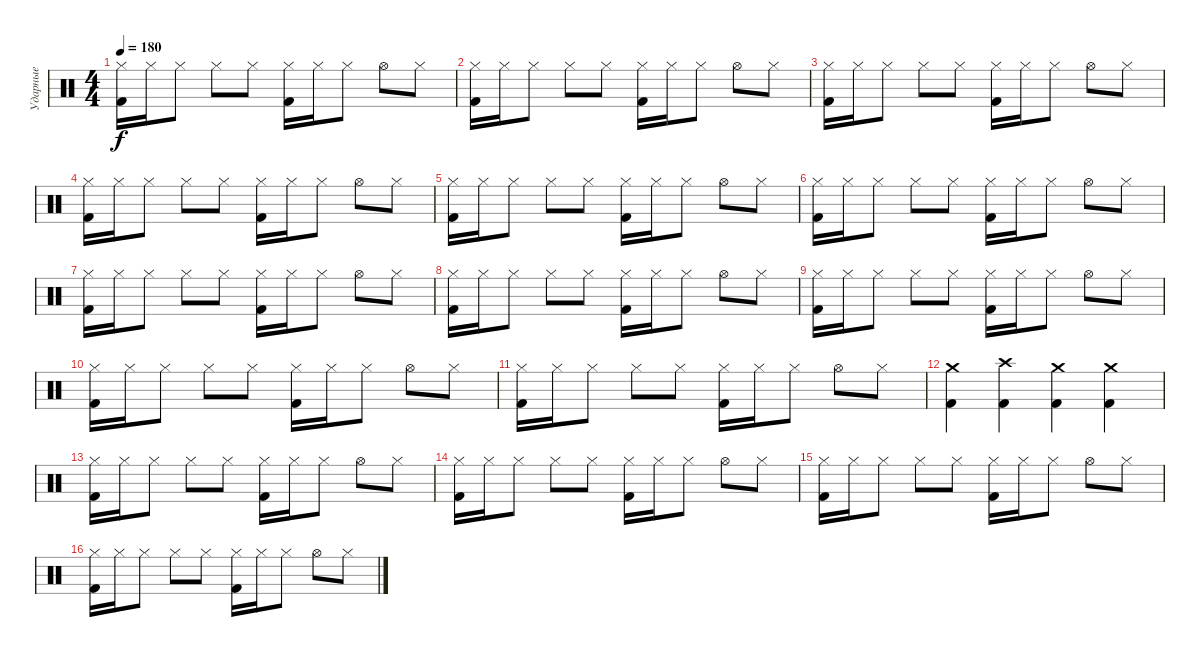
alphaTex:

\track ("Ударные" "Ударные") {instrument percussion}
\staff {score}
\articulation defaults
\ts (4 4)
\tempo 180
\clef neutral
\ks c
("Hi-Hat (closed)" "Kick (hit) 2").16{dy f} "Hi-Hat (closed)".16 "Hi-Hat (closed)".8 "Hi-Hat (closed)".8 "Hi-Hat (closed)".8 ("Hi-Hat (closed)" "Kick (hit) 2").16 "Hi-Hat (closed)".16 "Hi-Hat (closed)".8 "Hi-Hat (open)".8 "Hi-Hat (closed)".8 |
("Hi-Hat (closed)" "Kick (hit) 2").16 "Hi-Hat (closed)".16 "Hi-Hat (closed)".8 "Hi-Hat (closed)".8 "Hi-Hat (closed)".8 ("Hi-Hat (closed)" "Kick (hit) 2").16 "Hi-Hat (closed)".16 "Hi-Hat (closed)".8 "Hi-Hat (open)".8 "Hi-Hat (closed)".8 |
("Hi-Hat (closed)" "Kick (hit) 2").16 "Hi-Hat (closed)".16 "Hi-Hat (closed)".8 "Hi-Hat (closed)".8 "Hi-Hat (closed)".8 ("Hi-Hat (closed)" "Kick (hit) 2").16 "Hi-Hat (closed)".16 "Hi-Hat (closed)".8 "Hi-Hat (open)".8 "Hi-Hat (closed)".8 |
("Hi-Hat (closed)" "Kick (hit) 2").16 "Hi-Hat (closed)".16 "Hi-Hat (closed)".8 "Hi-Hat (closed)".8 "Hi-Hat (closed)".8 ("Hi-Hat (closed)" "Kick (hit) 2").16 "Hi-Hat (closed)".16 "Hi-Hat (closed)".8 "Hi-Hat (open)".8 "Hi-Hat (closed)".8 |
("Hi-Hat (closed)" "Kick (hit) 2").16 "Hi-Hat (closed)".16 "Hi-Hat (closed)".8 "Hi-Hat (closed)".8 "Hi-Hat (closed)".8 ("Hi-Hat (closed)" "Kick (hit) 2").16 "Hi-Hat (closed)".16 "Hi-Hat (closed)".8 "Hi-Hat (open)".8 "Hi-Hat (closed)".8 |
("Hi-Hat (closed)" "Kick (hit) 2").16 "Hi-Hat (closed)".16 "Hi-Hat (closed)".8 "Hi-Hat (closed)".8 "Hi-Hat (closed)".8 ("Hi-Hat (closed)" "Kick (hit) 2").16 "Hi-Hat (closed)".16 "Hi-Hat (closed)".8 "Hi-Hat (open)".8 "Hi-Hat (closed)".8 |
("Hi-Hat (closed)" "Kick (hit) 2").16 "Hi-Hat (closed)".16 "Hi-Hat (closed)".8 "Hi-Hat (closed)".8 "Hi-Hat (closed)".8 ("Hi-Hat (closed)" "Kick (hit) 2").16 "Hi-Hat (closed)".16 "Hi-Hat (closed)".8 "Hi-Hat (open)".8 "Hi-Hat (closed)".8 |
("Hi-Hat (closed)" "Kick (hit) 2").16 "Hi-Hat (closed)".16 "Hi-Hat (closed)".8 "Hi-Hat (closed)".8 "Hi-Hat (closed)".8 ("Hi-Hat (closed)" "Kick (hit) 2").16 "Hi-Hat (closed)".16 "Hi-Hat (closed)".8 "Hi-Hat (open)".8 "Hi-Hat (closed)".8 |
("Hi-Hat (closed)" "Kick (hit) 2").16 "Hi-Hat (closed)".16 "Hi-Hat (closed)".8 "Hi-Hat (closed)".8 "Hi-Hat (closed)".8 ("Hi-Hat (closed)" "Kick (hit) 2").16 "Hi-Hat (closed)".16 "Hi-Hat (closed)".8 "Hi-Hat (open)".8 "Hi-Hat (closed)".8 |
("Hi-Hat (closed)" "Kick (hit) 2").16 "Hi-Hat (closed)".16 "Hi-Hat (closed)".8 "Hi-Hat (closed)".8 "Hi-Hat (closed)".8 ("Hi-Hat (closed)" "Kick (hit) 2").16 "Hi-Hat (closed)".16 "Hi-Hat (closed)".8 "Hi-Hat (open)".8 "Hi-Hat (closed)".8 |
("Hi-Hat (closed)" "Kick (hit) 2").16 "Hi-Hat (closed)".16 "Hi-Hat (closed)".8 "Hi-Hat (closed)".8 "Hi-Hat (closed)".8 ("Hi-Hat (closed)" "Kick (hit) 2").16 "Hi-Hat (closed)".16 "Hi-Hat (closed)".8 "Hi-Hat (open)".8 "Hi-Hat (closed)".8 |
("Crash medium (hit)" "Kick (hit) 2").4 ("Crash high (hit)" "Kick (hit) 2").4 ("Crash medium (hit)" "Kick (hit) 2").4 ("Crash medium (hit)" "Kick (hit) 2").4 |
("Hi-Hat (closed)" "Kick (hit) 2").16 "Hi-Hat (closed)".16 "Hi-Hat (closed)".8 "Hi-Hat (closed)".8 "Hi-Hat (closed)".8 ("Hi-Hat (closed)" "Kick (hit) 2").16 "Hi-Hat (closed)".16 "Hi-Hat (closed)".8 "Hi-Hat (open)".8 "Hi-Hat (closed)".8 |
("Hi-Hat (closed)" "Kick (hit) 2").16 "Hi-Hat (closed)".16 "Hi-Hat (closed)".8 "Hi-Hat (closed)".8 "Hi-Hat (closed)".8 ("Hi-Hat (closed)" "Kick (hit) 2").16 "Hi-Hat (closed)".16 "Hi-Hat (closed)".8 "Hi-Hat (open)".8 "Hi-Hat (closed)".8 |
("Hi-Hat (closed)" "Kick (hit) 2").16 "Hi-Hat (closed)".16 "Hi-Hat (closed)".8 "Hi-Hat (closed)".8 "Hi-Hat (closed)".8 ("Hi-Hat (closed)" "Kick (hit) 2").16 "Hi-Hat (closed)".16 "Hi-Hat (closed)".8 "Hi-Hat (open)".8 "Hi-Hat (closed)".8 |
("Hi-Hat (closed)" "Kick (hit) 2").16 "Hi-Hat (closed)".16 "Hi-Hat (closed)".8 "Hi-Hat (closed)".8 "Hi-Hat (closed)".8 ("Hi-Hat (closed)" "Kick (hit) 2").16 "Hi-Hat (closed)".16 "Hi-Hat (closed)".8 "Hi-Hat (open)".8 "Hi-Hat (closed)".8
